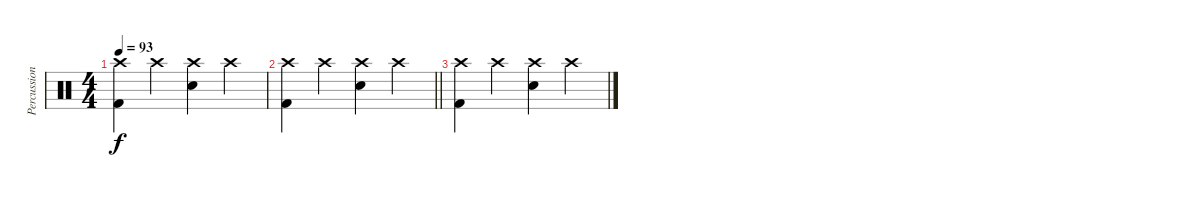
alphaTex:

\track ("Percussion" "Percussion") {instrument percussion}
\staff {score}
\articulation defaults
\ts (4 4)
\tempo 93
\clef neutral
\ks c
("Kick (hit) 2" "Crash high (hit)").4{dy f} "Crash high (hit)".4 ("Electric Snare (hit)" "Crash high (hit)").4 "Crash high (hit)".4 |
\barLineRight lightlight
("Kick (hit) 2" "Crash high (hit)").4 "Crash high (hit)".4 ("Electric Snare (hit)" "Crash high (hit)").4 "Crash high (hit)".4 |
("Kick (hit) 2" "Crash high (hit)").4 "Crash high (hit)".4 ("Electric Snare (hit)" "Crash high (hit)").4 "Crash high (hit)".4
